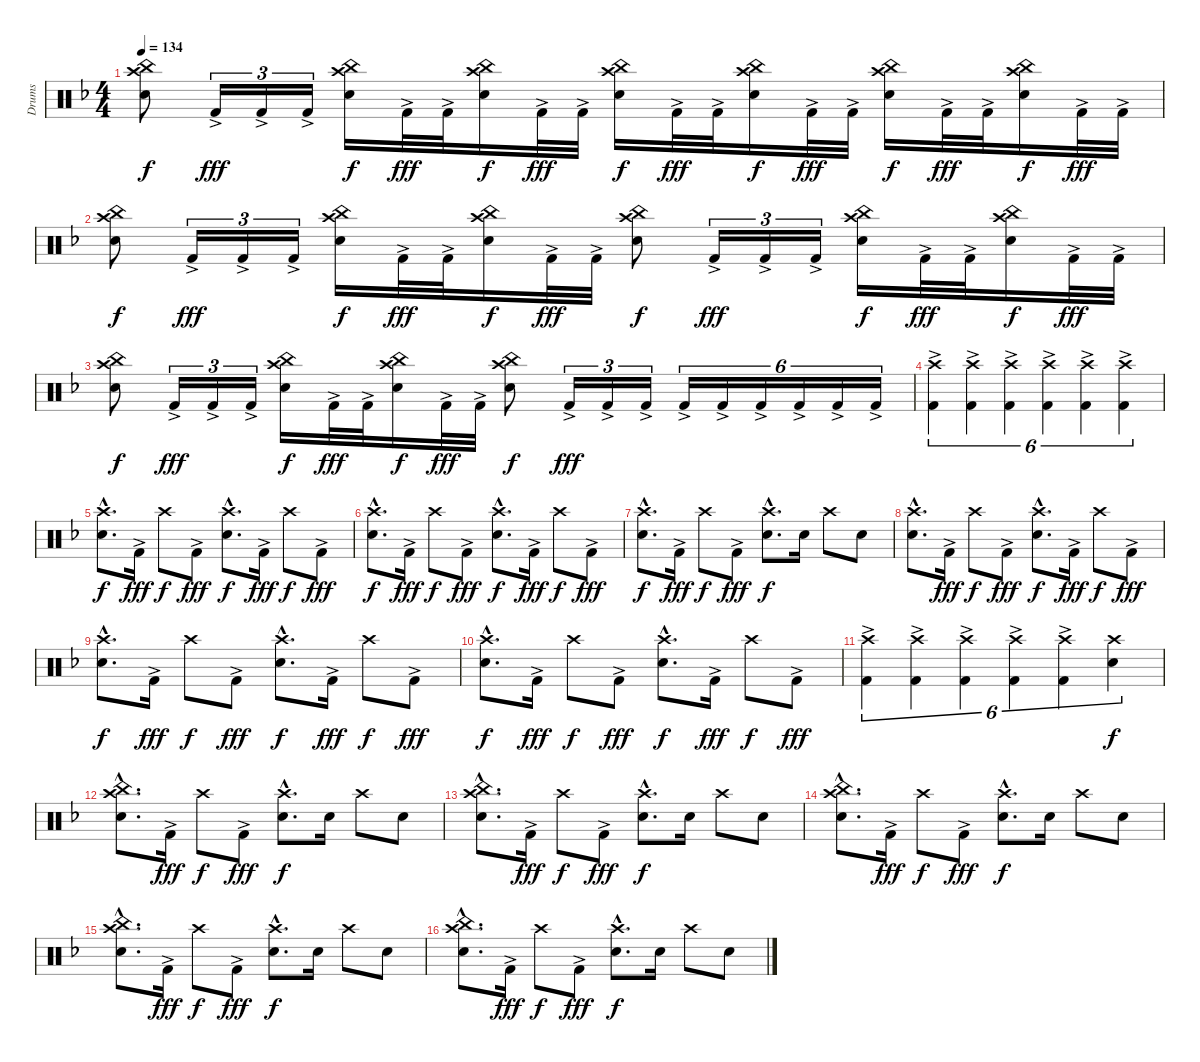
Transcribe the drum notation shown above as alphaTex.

\track ("Drums" "Drums") {instrument percussion}
\staff {score}
\articulation defaults
\ts (4 4)
\tempo 134
\clef neutral
\ks dminor
("Crash high (hit)" "China (hit)" "Snare (hit) 2").8{dy f} "Kick (hit) 2"{ac}.16{tu (3 2) dy fff} "Kick (hit) 2"{ac}.16{tu (3 2)} "Kick (hit) 2"{ac}.16{tu (3 2)} ("Crash high (hit)" "China (hit)" "Snare (hit) 2").16{dy f} "Kick (hit) 2"{ac}.32{dy fff} "Kick (hit) 2"{ac}.32 ("Crash high (hit)" "China (hit)" "Snare (hit) 2").16{dy f} "Kick (hit) 2"{ac}.32{dy fff} "Kick (hit) 2"{ac}.32 ("Crash high (hit)" "China (hit)" "Snare (hit) 2").16{dy f} "Kick (hit) 2"{ac}.32{dy fff} "Kick (hit) 2"{ac}.32 ("Crash high (hit)" "China (hit)" "Snare (hit) 2").16{dy f} "Kick (hit) 2"{ac}.32{dy fff} "Kick (hit) 2"{ac}.32 ("Crash high (hit)" "China (hit)" "Snare (hit) 2").16{dy f} "Kick (hit) 2"{ac}.32{dy fff} "Kick (hit) 2"{ac}.32 ("Crash high (hit)" "China (hit)" "Snare (hit) 2").16{dy f} "Kick (hit) 2"{ac}.32{dy fff} "Kick (hit) 2"{ac}.32 |
("Crash high (hit)" "China (hit)" "Snare (hit) 2").8{dy f} "Kick (hit) 2"{ac}.16{tu (3 2) dy fff} "Kick (hit) 2"{ac}.16{tu (3 2)} "Kick (hit) 2"{ac}.16{tu (3 2)} ("Crash high (hit)" "China (hit)" "Snare (hit) 2").16{dy f} "Kick (hit) 2"{ac}.32{dy fff} "Kick (hit) 2"{ac}.32 ("Crash high (hit)" "China (hit)" "Snare (hit) 2").16{dy f} "Kick (hit) 2"{ac}.32{dy fff} "Kick (hit) 2"{ac}.32 ("Crash high (hit)" "China (hit)" "Snare (hit) 2").8{dy f} "Kick (hit) 2"{ac}.16{tu (3 2) dy fff} "Kick (hit) 2"{ac}.16{tu (3 2)} "Kick (hit) 2"{ac}.16{tu (3 2)} ("Crash high (hit)" "China (hit)" "Snare (hit) 2").16{dy f} "Kick (hit) 2"{ac}.32{dy fff} "Kick (hit) 2"{ac}.32 ("Crash high (hit)" "China (hit)" "Snare (hit) 2").16{dy f} "Kick (hit) 2"{ac}.32{dy fff} "Kick (hit) 2"{ac}.32 |
("Crash high (hit)" "China (hit)" "Snare (hit) 2").8{dy f} "Kick (hit) 2"{ac}.16{tu (3 2) dy fff} "Kick (hit) 2"{ac}.16{tu (3 2)} "Kick (hit) 2"{ac}.16{tu (3 2)} ("Crash high (hit)" "China (hit)" "Snare (hit) 2").16{dy f} "Kick (hit) 2"{ac}.32{dy fff} "Kick (hit) 2"{ac}.32 ("Crash high (hit)" "China (hit)" "Snare (hit) 2").16{dy f} "Kick (hit) 2"{ac}.32{dy fff} "Kick (hit) 2"{ac}.32 ("Crash high (hit)" "China (hit)" "Snare (hit) 2").8{dy f} "Kick (hit) 2"{ac}.16{tu (3 2) dy fff} "Kick (hit) 2"{ac}.16{tu (3 2)} "Kick (hit) 2"{ac}.16{tu (3 2)} "Kick (hit) 2"{ac}.16{tu (6 4)} "Kick (hit) 2"{ac}.16{tu (6 4)} "Kick (hit) 2"{ac}.16{tu (6 4)} "Kick (hit) 2"{ac}.16{tu (6 4)} "Kick (hit) 2"{ac}.16{tu (6 4)} "Kick (hit) 2"{ac}.16{tu (6 4)} |
("Crash high (hit)" "Kick (hit) 2"{ac}).4{tu (6 4)} ("Crash high (hit)" "Kick (hit) 2"{ac}).4{tu (6 4)} ("Crash high (hit)" "Kick (hit) 2"{ac}).4{tu (6 4)} ("Crash high (hit)" "Kick (hit) 2"{ac}).4{tu (6 4)} ("Crash high (hit)" "Kick (hit) 2"{ac}).4{tu (6 4)} ("Crash high (hit)" "Kick (hit) 2"{ac}).4{tu (6 4)} |
("Crash high (hit)" "Snare (hit) 2"{hac}).8{d dy f} "Kick (hit) 2"{ac}.16{dy fff} "Crash high (hit)".8{dy f} "Kick (hit) 2"{ac}.8{dy fff} ("Crash high (hit)" "Snare (hit) 2"{hac}).8{d dy f} "Kick (hit) 2"{ac}.16{dy fff} "Crash high (hit)".8{dy f} "Kick (hit) 2"{ac}.8{dy fff} |
("Crash high (hit)" "Snare (hit) 2"{hac}).8{d dy f} "Kick (hit) 2"{ac}.16{dy fff} "Crash high (hit)".8{dy f} "Kick (hit) 2"{ac}.8{dy fff} ("Crash high (hit)" "Snare (hit) 2"{hac}).8{d dy f} "Kick (hit) 2"{ac}.16{dy fff} "Crash high (hit)".8{dy f} "Kick (hit) 2"{ac}.8{dy fff} |
("Crash high (hit)" "Snare (hit) 2"{hac}).8{d dy f} "Kick (hit) 2"{ac}.16{dy fff} "Crash high (hit)".8{dy f} "Kick (hit) 2"{ac}.8{dy fff} ("Crash high (hit)" "Snare (hit) 2"{hac}).8{d dy f} "Snare (hit) 2".16 "Crash high (hit)".8 "Snare (hit) 2".8 |
("Crash high (hit)" "Snare (hit) 2"{hac}).8{d} "Kick (hit) 2"{ac}.16{dy fff} "Crash high (hit)".8{dy f} "Kick (hit) 2"{ac}.8{dy fff} ("Crash high (hit)" "Snare (hit) 2"{hac}).8{d dy f} "Kick (hit) 2"{ac}.16{dy fff} "Crash high (hit)".8{dy f} "Kick (hit) 2"{ac}.8{dy fff} |
("Crash high (hit)" "Snare (hit) 2"{hac}).8{d dy f} "Kick (hit) 2"{ac}.16{dy fff} "Crash high (hit)".8{dy f} "Kick (hit) 2"{ac}.8{dy fff} ("Crash high (hit)" "Snare (hit) 2"{hac}).8{d dy f} "Kick (hit) 2"{ac}.16{dy fff} "Crash high (hit)".8{dy f} "Kick (hit) 2"{ac}.8{dy fff} |
("Crash high (hit)" "Snare (hit) 2"{hac}).8{d dy f} "Kick (hit) 2"{ac}.16{dy fff} "Crash high (hit)".8{dy f} "Kick (hit) 2"{ac}.8{dy fff} ("Crash high (hit)" "Snare (hit) 2"{hac}).8{d dy f} "Kick (hit) 2"{ac}.16{dy fff} "Crash high (hit)".8{dy f} "Kick (hit) 2"{ac}.8{dy fff} |
("Crash high (hit)" "Kick (hit) 2"{ac}).4{tu (6 4)} ("Crash high (hit)" "Kick (hit) 2"{ac}).4{tu (6 4)} ("Crash high (hit)" "Kick (hit) 2"{ac}).4{tu (6 4)} ("Crash high (hit)" "Kick (hit) 2"{ac}).4{tu (6 4)} ("Crash high (hit)" "Kick (hit) 2"{ac}).4{tu (6 4)} ("Crash high (hit)" "Snare (hit) 2").4{tu (6 4) dy f} |
("Crash high (hit)" "China (hit)"{hac} "Snare (hit) 2"{hac}).8{d} "Kick (hit) 2"{ac}.16{dy fff} "Crash high (hit)".8{dy f} "Kick (hit) 2"{ac}.8{dy fff} ("Crash high (hit)" "Snare (hit) 2"{hac}).8{d dy f} "Snare (hit) 2".16 "Crash high (hit)".8 "Snare (hit) 2".8 |
("Crash high (hit)" "China (hit)"{hac} "Snare (hit) 2"{hac}).8{d} "Kick (hit) 2"{ac}.16{dy fff} "Crash high (hit)".8{dy f} "Kick (hit) 2"{ac}.8{dy fff} ("Crash high (hit)" "Snare (hit) 2"{hac}).8{d dy f} "Snare (hit) 2".16 "Crash high (hit)".8 "Snare (hit) 2".8 |
("Crash high (hit)" "China (hit)"{hac} "Snare (hit) 2"{hac}).8{d} "Kick (hit) 2"{ac}.16{dy fff} "Crash high (hit)".8{dy f} "Kick (hit) 2"{ac}.8{dy fff} ("Crash high (hit)" "Snare (hit) 2"{hac}).8{d dy f} "Snare (hit) 2".16 "Crash high (hit)".8 "Snare (hit) 2".8 |
("Crash high (hit)" "China (hit)"{hac} "Snare (hit) 2"{hac}).8{d} "Kick (hit) 2"{ac}.16{dy fff} "Crash high (hit)".8{dy f} "Kick (hit) 2"{ac}.8{dy fff} ("Crash high (hit)" "Snare (hit) 2"{hac}).8{d dy f} "Snare (hit) 2".16 "Crash high (hit)".8 "Snare (hit) 2".8 |
("Crash high (hit)" "China (hit)"{hac} "Snare (hit) 2"{hac}).8{d} "Kick (hit) 2"{ac}.16{dy fff} "Crash high (hit)".8{dy f} "Kick (hit) 2"{ac}.8{dy fff} ("Crash high (hit)" "Snare (hit) 2"{hac}).8{d dy f} "Snare (hit) 2".16 "Crash high (hit)".8 "Snare (hit) 2".8
